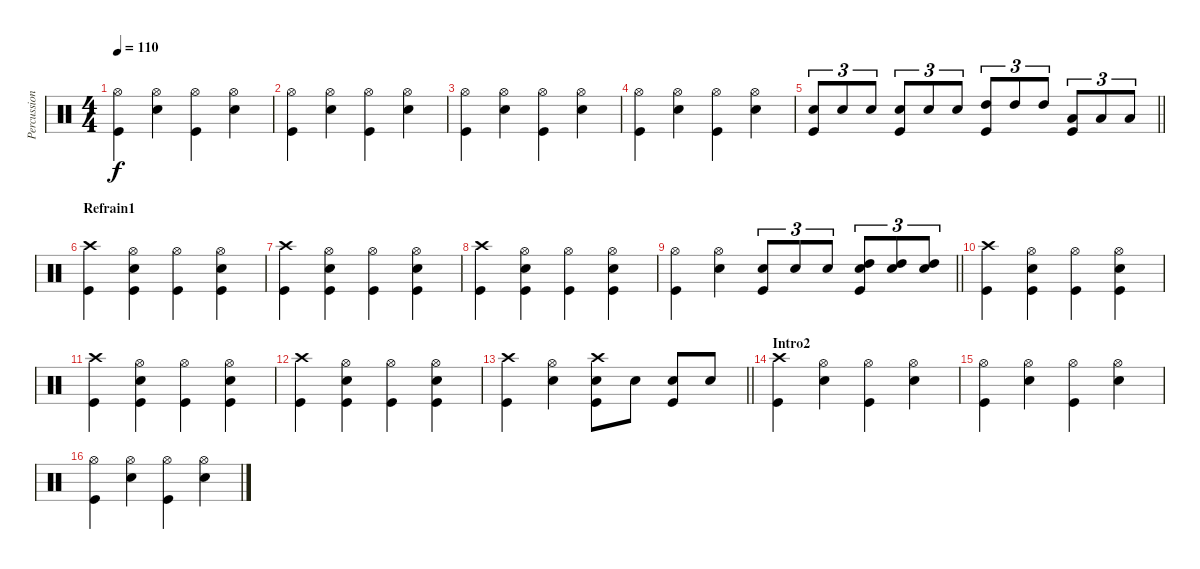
\track ("Percussions" "Percussion") {instrument percussion}
\staff {score}
\articulation defaults
\ts (4 4)
\tempo 110
\clef neutral
\ks c
("Hi-Hat (open)" "Kick (hit)").4{dy f} ("Hi-Hat (open)" "Snare (hit) 2").4 ("Hi-Hat (open)" "Kick (hit)").4 ("Hi-Hat (open)" "Snare (hit) 2").4 |
("Hi-Hat (open)" "Kick (hit)").4 ("Hi-Hat (open)" "Snare (hit) 2").4 ("Hi-Hat (open)" "Kick (hit)").4 ("Hi-Hat (open)" "Snare (hit) 2").4 |
("Hi-Hat (open)" "Kick (hit)").4 ("Hi-Hat (open)" "Snare (hit) 2").4 ("Hi-Hat (open)" "Kick (hit)").4 ("Hi-Hat (open)" "Snare (hit) 2").4 |
("Hi-Hat (open)" "Kick (hit)").4 ("Hi-Hat (open)" "Snare (hit) 2").4 ("Hi-Hat (open)" "Kick (hit)").4 ("Hi-Hat (open)" "Snare (hit) 2").4 |
\barLineRight lightlight
("Snare (hit) 2" "Kick (hit)").8{tu (3 2)} "Snare (hit) 2".8{tu (3 2)} "Snare (hit) 2".8{tu (3 2)} ("Snare (hit) 2" "Kick (hit)").8{tu (3 2)} "Snare (hit) 2".8{tu (3 2)} "Snare (hit) 2".8{tu (3 2)} ("High Tom (hit)" "Kick (hit)").8{tu (3 2)} "High Tom (hit)".8{tu (3 2)} "High Tom (hit)".8{tu (3 2)} ("Low Tom (hit)" "Kick (hit)").8{tu (3 2)} "Low Tom (hit)".8{tu (3 2)} "Low Tom (hit)".8{tu (3 2)} |
\section ("" "Refrain1")
("Crash high (hit)" "Kick (hit)").4 ("Hi-Hat (open)" "Snare (hit) 2" "Kick (hit)").4 ("Hi-Hat (open)" "Kick (hit)").4 ("Hi-Hat (open)" "Snare (hit) 2" "Kick (hit)").4 |
("Crash high (hit)" "Kick (hit)").4 ("Hi-Hat (open)" "Snare (hit) 2" "Kick (hit)").4 ("Hi-Hat (open)" "Kick (hit)").4 ("Hi-Hat (open)" "Snare (hit) 2" "Kick (hit)").4 |
("Crash high (hit)" "Kick (hit)").4 ("Hi-Hat (open)" "Snare (hit) 2" "Kick (hit)").4 ("Hi-Hat (open)" "Kick (hit)").4 ("Hi-Hat (open)" "Snare (hit) 2" "Kick (hit)").4 |
\barLineRight lightlight
("Hi-Hat (open)" "Kick (hit)").4 ("Hi-Hat (open)" "Snare (hit) 2").4 ("Snare (hit) 2" "Kick (hit)").8{tu (3 2)} "Snare (hit) 2".8{tu (3 2)} "Snare (hit) 2".8{tu (3 2)} ("Snare (hit) 2" "High Tom (hit)" "Kick (hit)").8{tu (3 2)} ("Snare (hit) 2" "High Tom (hit)").8{tu (3 2)} ("Snare (hit) 2" "High Tom (hit)").8{tu (3 2)} |
("Crash high (hit)" "Kick (hit)").4 ("Hi-Hat (open)" "Snare (hit) 2" "Kick (hit)").4 ("Hi-Hat (open)" "Kick (hit)").4 ("Hi-Hat (open)" "Snare (hit) 2" "Kick (hit)").4 |
("Crash high (hit)" "Kick (hit)").4 ("Hi-Hat (open)" "Snare (hit) 2" "Kick (hit)").4 ("Hi-Hat (open)" "Kick (hit)").4 ("Hi-Hat (open)" "Snare (hit) 2" "Kick (hit)").4 |
("Crash high (hit)" "Kick (hit)").4 ("Hi-Hat (open)" "Snare (hit) 2" "Kick (hit)").4 ("Hi-Hat (open)" "Kick (hit)").4 ("Hi-Hat (open)" "Snare (hit) 2" "Kick (hit)").4 |
\barLineRight lightlight
("Crash high (hit)" "Kick (hit)").4 ("Hi-Hat (open)" "Snare (hit) 2").4 ("Crash high (hit)" "Snare (hit) 2" "Kick (hit)").8 "Snare (hit) 2".8 ("Snare (hit) 2" "Kick (hit)").8 "Snare (hit) 2".8 |
\section ("" "Intro2")
("Crash high (hit)" "Kick (hit)").4 ("Hi-Hat (open)" "Snare (hit) 2").4 ("Hi-Hat (open)" "Kick (hit)").4 ("Hi-Hat (open)" "Snare (hit) 2").4 |
("Hi-Hat (open)" "Kick (hit)").4 ("Hi-Hat (open)" "Snare (hit) 2").4 ("Hi-Hat (open)" "Kick (hit)").4 ("Hi-Hat (open)" "Snare (hit) 2").4 |
("Hi-Hat (open)" "Kick (hit)").4 ("Hi-Hat (open)" "Snare (hit) 2").4 ("Hi-Hat (open)" "Kick (hit)").4 ("Hi-Hat (open)" "Snare (hit) 2").4
